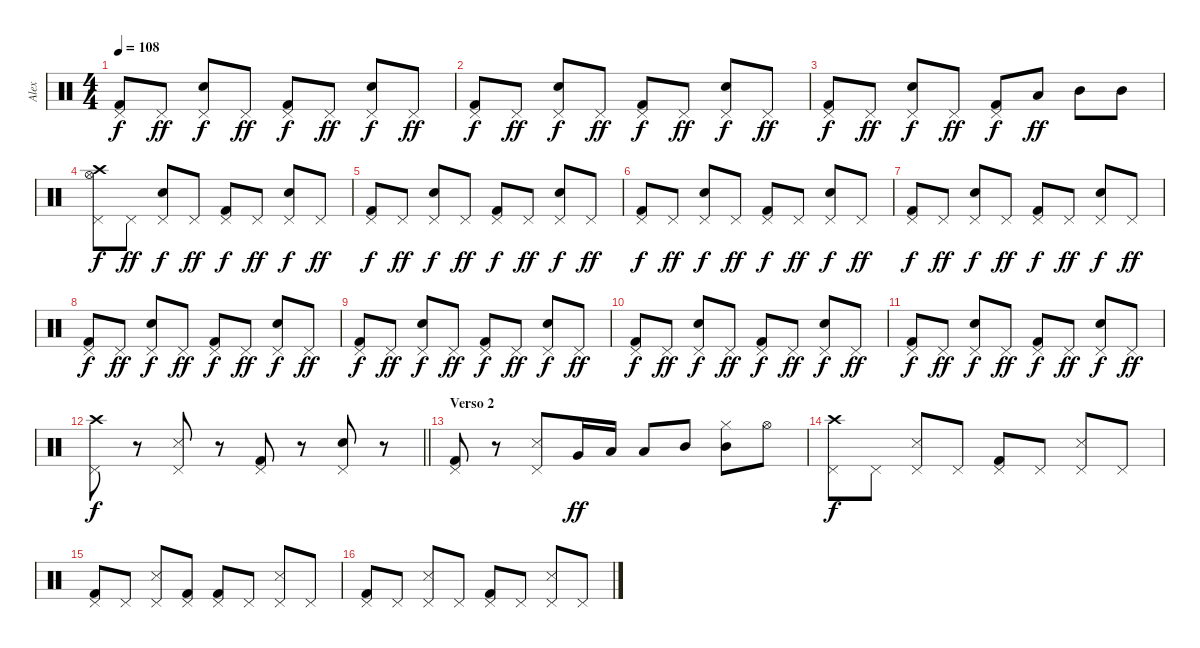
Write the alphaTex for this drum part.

\track ("Alex" "Alex") {instrument percussion}
\staff {score}
\articulation defaults
\ts (4 4)
\tempo 108
\clef neutral
\ks c
("Kick (hit) 2" "Pedal Hi-Hat (hit)").8{dy f} "Pedal Hi-Hat (hit)".8{dy ff} ("Electric Snare (hit)" "Pedal Hi-Hat (hit)").8{dy f} "Pedal Hi-Hat (hit)".8{dy ff} ("Kick (hit) 2" "Pedal Hi-Hat (hit)").8{dy f} "Pedal Hi-Hat (hit)".8{dy ff} ("Electric Snare (hit)" "Pedal Hi-Hat (hit)").8{dy f} "Pedal Hi-Hat (hit)".8{dy ff} |
("Kick (hit) 2" "Pedal Hi-Hat (hit)").8{dy f} "Pedal Hi-Hat (hit)".8{dy ff} ("Electric Snare (hit)" "Pedal Hi-Hat (hit)").8{dy f} "Pedal Hi-Hat (hit)".8{dy ff} ("Kick (hit) 2" "Pedal Hi-Hat (hit)").8{dy f} "Pedal Hi-Hat (hit)".8{dy ff} ("Electric Snare (hit)" "Pedal Hi-Hat (hit)").8{dy f} "Pedal Hi-Hat (hit)".8{dy ff} |
("Kick (hit) 2" "Pedal Hi-Hat (hit)").8{dy f} "Pedal Hi-Hat (hit)".8{dy ff} ("Electric Snare (hit)" "Pedal Hi-Hat (hit)").8{dy f} "Pedal Hi-Hat (hit)".8{dy ff} ("Kick (hit) 2" "Pedal Hi-Hat (hit)").8{dy f} "Low Tom (hit)".8{dy ff} "Mid Tom (hit)".8 "Mid Tom (hit)".8 |
("Crash high (hit)" "Hi-Hat (open)" "Pedal Hi-Hat (hit)").8{dy f} "Pedal Hi-Hat (hit)".8{dy ff} ("Electric Snare (hit)" "Pedal Hi-Hat (hit)").8{dy f} "Pedal Hi-Hat (hit)".8{dy ff} ("Kick (hit) 2" "Pedal Hi-Hat (hit)").8{dy f} "Pedal Hi-Hat (hit)".8{dy ff} ("Electric Snare (hit)" "Pedal Hi-Hat (hit)").8{dy f} "Pedal Hi-Hat (hit)".8{dy ff} |
("Kick (hit) 2" "Pedal Hi-Hat (hit)").8{dy f} "Pedal Hi-Hat (hit)".8{dy ff} ("Electric Snare (hit)" "Pedal Hi-Hat (hit)").8{dy f} "Pedal Hi-Hat (hit)".8{dy ff} ("Kick (hit) 2" "Pedal Hi-Hat (hit)").8{dy f} "Pedal Hi-Hat (hit)".8{dy ff} ("Electric Snare (hit)" "Pedal Hi-Hat (hit)").8{dy f} "Pedal Hi-Hat (hit)".8{dy ff} |
("Kick (hit) 2" "Pedal Hi-Hat (hit)").8{dy f} "Pedal Hi-Hat (hit)".8{dy ff} ("Electric Snare (hit)" "Pedal Hi-Hat (hit)").8{dy f} "Pedal Hi-Hat (hit)".8{dy ff} ("Kick (hit) 2" "Pedal Hi-Hat (hit)").8{dy f} "Pedal Hi-Hat (hit)".8{dy ff} ("Electric Snare (hit)" "Pedal Hi-Hat (hit)").8{dy f} "Pedal Hi-Hat (hit)".8{dy ff} |
("Kick (hit) 2" "Pedal Hi-Hat (hit)").8{dy f} "Pedal Hi-Hat (hit)".8{dy ff} ("Electric Snare (hit)" "Pedal Hi-Hat (hit)").8{dy f} "Pedal Hi-Hat (hit)".8{dy ff} ("Kick (hit) 2" "Pedal Hi-Hat (hit)").8{dy f} "Pedal Hi-Hat (hit)".8{dy ff} ("Electric Snare (hit)" "Pedal Hi-Hat (hit)").8{dy f} "Pedal Hi-Hat (hit)".8{dy ff} |
("Kick (hit) 2" "Pedal Hi-Hat (hit)").8{dy f} "Pedal Hi-Hat (hit)".8{dy ff} ("Electric Snare (hit)" "Pedal Hi-Hat (hit)").8{dy f} "Pedal Hi-Hat (hit)".8{dy ff} ("Kick (hit) 2" "Pedal Hi-Hat (hit)").8{dy f} "Pedal Hi-Hat (hit)".8{dy ff} ("Electric Snare (hit)" "Pedal Hi-Hat (hit)").8{dy f} "Pedal Hi-Hat (hit)".8{dy ff} |
("Kick (hit) 2" "Pedal Hi-Hat (hit)").8{dy f} "Pedal Hi-Hat (hit)".8{dy ff} ("Electric Snare (hit)" "Pedal Hi-Hat (hit)").8{dy f} "Pedal Hi-Hat (hit)".8{dy ff} ("Kick (hit) 2" "Pedal Hi-Hat (hit)").8{dy f} "Pedal Hi-Hat (hit)".8{dy ff} ("Electric Snare (hit)" "Pedal Hi-Hat (hit)").8{dy f} "Pedal Hi-Hat (hit)".8{dy ff} |
("Kick (hit) 2" "Pedal Hi-Hat (hit)").8{dy f} "Pedal Hi-Hat (hit)".8{dy ff} ("Electric Snare (hit)" "Pedal Hi-Hat (hit)").8{dy f} "Pedal Hi-Hat (hit)".8{dy ff} ("Kick (hit) 2" "Pedal Hi-Hat (hit)").8{dy f} "Pedal Hi-Hat (hit)".8{dy ff} ("Electric Snare (hit)" "Pedal Hi-Hat (hit)").8{dy f} "Pedal Hi-Hat (hit)".8{dy ff} |
("Kick (hit) 2" "Pedal Hi-Hat (hit)").8{dy f} "Pedal Hi-Hat (hit)".8{dy ff} ("Electric Snare (hit)" "Pedal Hi-Hat (hit)").8{dy f} "Pedal Hi-Hat (hit)".8{dy ff} ("Kick (hit) 2" "Pedal Hi-Hat (hit)").8{dy f} "Pedal Hi-Hat (hit)".8{dy ff} ("Electric Snare (hit)" "Pedal Hi-Hat (hit)").8{dy f} "Pedal Hi-Hat (hit)".8{dy ff} |
\barLineRight lightlight
("Crash high (hit)" "Pedal Hi-Hat (hit)").8{dy f} r.8 ("Snare (side stick) 3" "Pedal Hi-Hat (hit)").8 r.8 ("Kick (hit) 2" "Pedal Hi-Hat (hit)").8 r.8 ("Electric Snare (hit)" "Pedal Hi-Hat (hit)").8 r.8 |
\section ("" "Verso 2")
("Kick (hit) 2" "Pedal Hi-Hat (hit)").8 r.8 ("Snare (side stick) 3" "Pedal Hi-Hat (hit)").8 "Very Low Tom (hit)".16{dy ff} "Low Tom (hit)".16 "Low Tom (hit)".8 "Mid Tom (hit)".8 ("Mid Tom (hit)" "Hi-Hat (closed)").8 "Hi-Hat (open)".8 |
("Crash high (hit)" "Pedal Hi-Hat (hit)").8{dy f} "Pedal Hi-Hat (hit)".8 ("Snare (side stick) 3" "Pedal Hi-Hat (hit)").8 "Pedal Hi-Hat (hit)".8 ("Kick (hit) 2" "Pedal Hi-Hat (hit)").8 "Pedal Hi-Hat (hit)".8 ("Snare (side stick) 3" "Pedal Hi-Hat (hit)").8 "Pedal Hi-Hat (hit)".8 |
("Kick (hit) 2" "Pedal Hi-Hat (hit)").8 "Pedal Hi-Hat (hit)".8 ("Snare (side stick) 3" "Pedal Hi-Hat (hit)").8 ("Kick (hit) 2" "Pedal Hi-Hat (hit)").8 ("Kick (hit) 2" "Pedal Hi-Hat (hit)").8 "Pedal Hi-Hat (hit)".8 ("Snare (side stick) 3" "Pedal Hi-Hat (hit)").8 "Pedal Hi-Hat (hit)".8 |
("Kick (hit) 2" "Pedal Hi-Hat (hit)").8 "Pedal Hi-Hat (hit)".8 ("Snare (side stick) 3" "Pedal Hi-Hat (hit)").8 "Pedal Hi-Hat (hit)".8 ("Kick (hit) 2" "Pedal Hi-Hat (hit)").8 "Pedal Hi-Hat (hit)".8 ("Snare (side stick) 3" "Pedal Hi-Hat (hit)").8 "Pedal Hi-Hat (hit)".8
